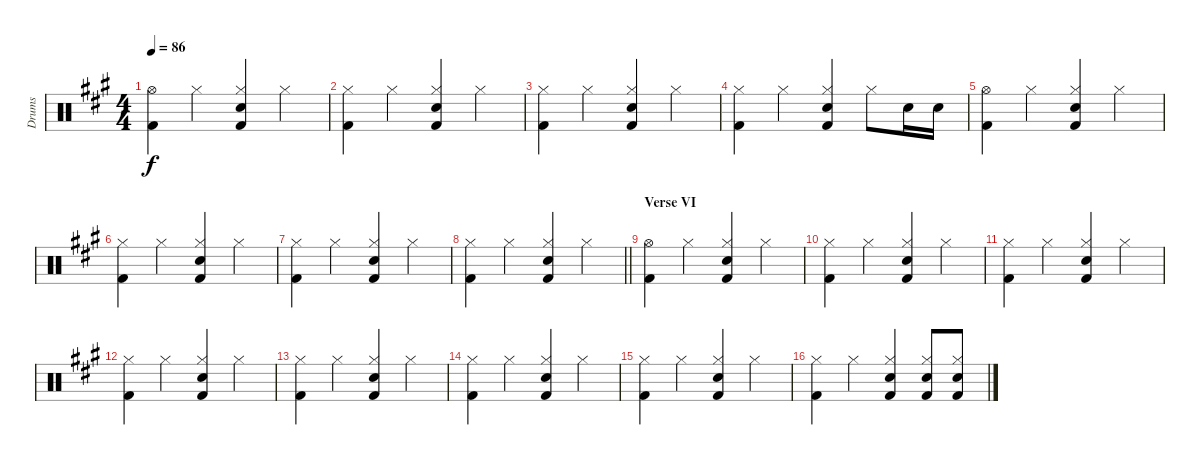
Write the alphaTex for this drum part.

\track ("Drums" "Drums") {instrument percussion}
\staff {score}
\articulation defaults
\ts (4 4)
\tempo 86
\clef neutral
\ks a
("Hi-Hat (open)" "Kick (hit) 2").4{dy f} "Hi-Hat (closed)".4 ("Hi-Hat (closed)" "Electric Snare (hit)" "Kick (hit) 2").4 "Hi-Hat (closed)".4 |
("Hi-Hat (closed)" "Kick (hit) 2").4 "Hi-Hat (closed)".4 ("Hi-Hat (closed)" "Electric Snare (hit)" "Kick (hit) 2").4 "Hi-Hat (closed)".4 |
("Hi-Hat (closed)" "Kick (hit) 2").4 "Hi-Hat (closed)".4 ("Hi-Hat (closed)" "Electric Snare (hit)" "Kick (hit) 2").4 "Hi-Hat (closed)".4 |
("Hi-Hat (closed)" "Kick (hit) 2").4 "Hi-Hat (closed)".4 ("Hi-Hat (closed)" "Electric Snare (hit)" "Kick (hit) 2").4 "Hi-Hat (closed)".8 "Electric Snare (hit)".16 "Electric Snare (hit)".16 |
("Hi-Hat (open)" "Kick (hit) 2").4 "Hi-Hat (closed)".4 ("Hi-Hat (closed)" "Electric Snare (hit)" "Kick (hit) 2").4 "Hi-Hat (closed)".4 |
("Hi-Hat (closed)" "Kick (hit) 2").4 "Hi-Hat (closed)".4 ("Hi-Hat (closed)" "Electric Snare (hit)" "Kick (hit) 2").4 "Hi-Hat (closed)".4 |
("Hi-Hat (closed)" "Kick (hit) 2").4 "Hi-Hat (closed)".4 ("Hi-Hat (closed)" "Electric Snare (hit)" "Kick (hit) 2").4 "Hi-Hat (closed)".4 |
\barLineRight lightlight
("Hi-Hat (closed)" "Kick (hit) 2").4 "Hi-Hat (closed)".4 ("Hi-Hat (closed)" "Electric Snare (hit)" "Kick (hit) 2").4 "Hi-Hat (closed)".4 |
\section ("" "Verse VI")
("Hi-Hat (open)" "Kick (hit) 2").4 "Hi-Hat (closed)".4 ("Hi-Hat (closed)" "Electric Snare (hit)" "Kick (hit) 2").4 "Hi-Hat (closed)".4 |
("Hi-Hat (closed)" "Kick (hit) 2").4 "Hi-Hat (closed)".4 ("Hi-Hat (closed)" "Electric Snare (hit)" "Kick (hit) 2").4 "Hi-Hat (closed)".4 |
("Hi-Hat (closed)" "Kick (hit) 2").4 "Hi-Hat (closed)".4 ("Hi-Hat (closed)" "Electric Snare (hit)" "Kick (hit) 2").4 "Hi-Hat (closed)".4 |
("Hi-Hat (closed)" "Kick (hit) 2").4 "Hi-Hat (closed)".4 ("Hi-Hat (closed)" "Electric Snare (hit)" "Kick (hit) 2").4 "Hi-Hat (closed)".4 |
("Hi-Hat (closed)" "Kick (hit) 2").4 "Hi-Hat (closed)".4 ("Hi-Hat (closed)" "Electric Snare (hit)" "Kick (hit) 2").4 "Hi-Hat (closed)".4 |
("Hi-Hat (closed)" "Kick (hit) 2").4 "Hi-Hat (closed)".4 ("Hi-Hat (closed)" "Electric Snare (hit)" "Kick (hit) 2").4 "Hi-Hat (closed)".4 |
("Hi-Hat (closed)" "Kick (hit) 2").4 "Hi-Hat (closed)".4 ("Hi-Hat (closed)" "Electric Snare (hit)" "Kick (hit) 2").4 "Hi-Hat (closed)".4 |
("Hi-Hat (closed)" "Kick (hit) 2").4 "Hi-Hat (closed)".4 ("Hi-Hat (closed)" "Electric Snare (hit)" "Kick (hit) 2").4 ("Hi-Hat (closed)" "Electric Snare (hit)" "Kick (hit) 2").8 ("Hi-Hat (closed)" "Electric Snare (hit)" "Kick (hit) 2").8
